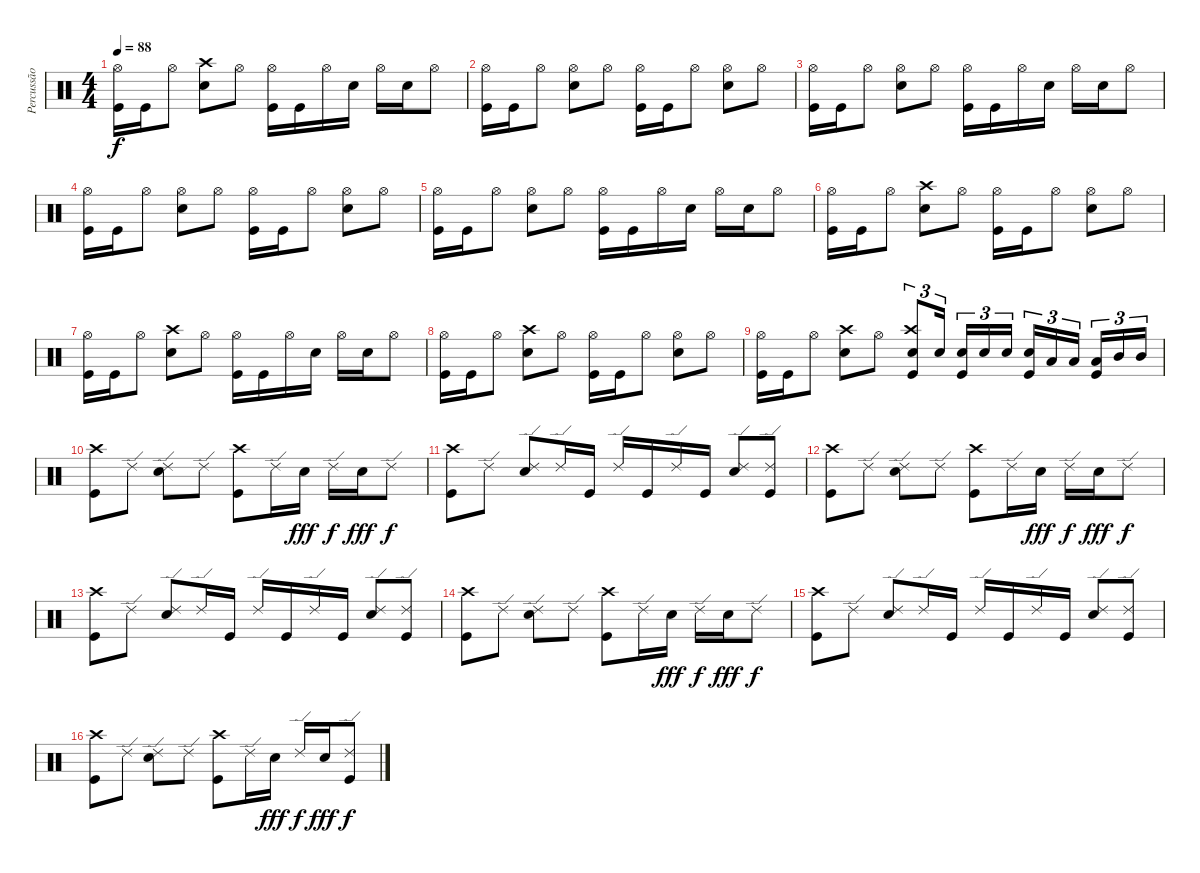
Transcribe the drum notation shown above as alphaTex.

\track ("Percussão" "Percussão") {instrument percussion}
\staff {score}
\articulation defaults
\ts (4 4)
\tempo 88
\clef neutral
\ks c
("Hi-Hat (open)" "Kick (hit)").16{dy f} "Kick (hit)".16 "Hi-Hat (open)".8 ("Crash high (hit)" "Electric Snare (hit)").8 "Hi-Hat (open)".8 ("Hi-Hat (open)" "Kick (hit)").16 "Kick (hit)".16 "Hi-Hat (open)".16 "Electric Snare (hit)".16 "Hi-Hat (open)".16 "Electric Snare (hit)".16 "Hi-Hat (open)".8 |
("Hi-Hat (open)" "Kick (hit)").16 "Kick (hit)".16 "Hi-Hat (open)".8 ("Hi-Hat (open)" "Electric Snare (hit)").8 "Hi-Hat (open)".8 ("Hi-Hat (open)" "Kick (hit)").16 "Kick (hit)".16 "Hi-Hat (open)".8 ("Hi-Hat (open)" "Electric Snare (hit)").8 "Hi-Hat (open)".8 |
("Hi-Hat (open)" "Kick (hit)").16 "Kick (hit)".16 "Hi-Hat (open)".8 ("Hi-Hat (open)" "Electric Snare (hit)").8 "Hi-Hat (open)".8 ("Hi-Hat (open)" "Kick (hit)").16 "Kick (hit)".16 "Hi-Hat (open)".16 "Electric Snare (hit)".16 "Hi-Hat (open)".16 "Electric Snare (hit)".16 "Hi-Hat (open)".8 |
("Hi-Hat (open)" "Kick (hit)").16 "Kick (hit)".16 "Hi-Hat (open)".8 ("Hi-Hat (open)" "Electric Snare (hit)").8 "Hi-Hat (open)".8 ("Hi-Hat (open)" "Kick (hit)").16 "Kick (hit)".16 "Hi-Hat (open)".8 ("Hi-Hat (open)" "Electric Snare (hit)").8 "Hi-Hat (open)".8 |
("Hi-Hat (open)" "Kick (hit)").16 "Kick (hit)".16 "Hi-Hat (open)".8 ("Hi-Hat (open)" "Electric Snare (hit)").8 "Hi-Hat (open)".8 ("Hi-Hat (open)" "Kick (hit)").16 "Kick (hit)".16 "Hi-Hat (open)".16 "Electric Snare (hit)".16 "Hi-Hat (open)".16 "Electric Snare (hit)".16 "Hi-Hat (open)".8 |
("Hi-Hat (open)" "Kick (hit)").16 "Kick (hit)".16 "Hi-Hat (open)".8 ("Crash high (hit)" "Electric Snare (hit)").8 "Hi-Hat (open)".8 ("Hi-Hat (open)" "Kick (hit)").16 "Kick (hit)".16 "Hi-Hat (open)".8 ("Hi-Hat (open)" "Electric Snare (hit)").8 "Hi-Hat (open)".8 |
("Hi-Hat (open)" "Kick (hit)").16 "Kick (hit)".16 "Hi-Hat (open)".8 ("Crash high (hit)" "Electric Snare (hit)").8 "Hi-Hat (open)".8 ("Hi-Hat (open)" "Kick (hit)").16 "Kick (hit)".16 "Hi-Hat (open)".16 "Electric Snare (hit)".16 "Hi-Hat (open)".16 "Electric Snare (hit)".16 "Hi-Hat (open)".8 |
("Hi-Hat (open)" "Kick (hit)").16 "Kick (hit)".16 "Hi-Hat (open)".8 ("Crash high (hit)" "Electric Snare (hit)").8 "Hi-Hat (open)".8 ("Hi-Hat (open)" "Kick (hit)").16 "Kick (hit)".16 "Hi-Hat (open)".8 ("Hi-Hat (open)" "Electric Snare (hit)").8 "Hi-Hat (open)".8 |
("Hi-Hat (open)" "Kick (hit)").16 "Kick (hit)".16 "Hi-Hat (open)".8 ("Crash high (hit)" "Electric Snare (hit)").8 "Hi-Hat (open)".8 ("Crash high (hit)" "Electric Snare (hit)" "Kick (hit)").8{tu (3 2)} "Electric Snare (hit)".16{tu (3 2)} ("Electric Snare (hit)" "Kick (hit)").16{tu (3 2)} "Electric Snare (hit)".16{tu (3 2)} "Electric Snare (hit)".16{tu (3 2)} ("Electric Snare (hit)" "Kick (hit)").16{tu (3 2)} "Low Tom (hit)".16{tu (3 2)} "Low Tom (hit)".16{tu (3 2)} ("Low Tom (hit)" "Kick (hit)").16{tu (3 2)} "Mid Tom (hit)".16{tu (3 2)} "Mid Tom (hit)".16{tu (3 2)} |
("Crash high (hit)" "Kick (hit)").8 "Ride (edge) 2".8 ("Ride (edge) 2" "Electric Snare (hit)").8 "Ride (edge) 2".8 ("Crash high (hit)" "Kick (hit)").8 "Ride (edge) 2".16 "Electric Snare (hit)".16{dy fff} "Ride (edge) 2".16{dy f} "Electric Snare (hit)".16{dy fff} "Ride (edge) 2".8{dy f} |
("Crash high (hit)" "Kick (hit)").8 "Ride (edge) 2".8 ("Ride (edge) 2" "Electric Snare (hit)").8 "Ride (edge) 2".16 "Kick (hit)".16 "Ride (edge) 2".16 "Kick (hit)".16 "Ride (edge) 2".16 "Kick (hit)".16 ("Ride (edge) 2" "Electric Snare (hit)").8 ("Ride (edge) 2" "Kick (hit)").8 |
("Crash high (hit)" "Kick (hit)").8 "Ride (edge) 2".8 ("Ride (edge) 2" "Electric Snare (hit)").8 "Ride (edge) 2".8 ("Crash high (hit)" "Kick (hit)").8 "Ride (edge) 2".16 "Electric Snare (hit)".16{dy fff} "Ride (edge) 2".16{dy f} "Electric Snare (hit)".16{dy fff} "Ride (edge) 2".8{dy f} |
("Crash high (hit)" "Kick (hit)").8 "Ride (edge) 2".8 ("Ride (edge) 2" "Electric Snare (hit)").8 "Ride (edge) 2".16 "Kick (hit)".16 "Ride (edge) 2".16 "Kick (hit)".16 "Ride (edge) 2".16 "Kick (hit)".16 ("Ride (edge) 2" "Electric Snare (hit)").8 ("Ride (edge) 2" "Kick (hit)").8 |
("Crash high (hit)" "Kick (hit)").8 "Ride (edge) 2".8 ("Ride (edge) 2" "Electric Snare (hit)").8 "Ride (edge) 2".8 ("Crash high (hit)" "Kick (hit)").8 "Ride (edge) 2".16 "Electric Snare (hit)".16{dy fff} "Ride (edge) 2".16{dy f} "Electric Snare (hit)".16{dy fff} "Ride (edge) 2".8{dy f} |
("Crash high (hit)" "Kick (hit)").8 "Ride (edge) 2".8 ("Ride (edge) 2" "Electric Snare (hit)").8 "Ride (edge) 2".16 "Kick (hit)".16 "Ride (edge) 2".16 "Kick (hit)".16 "Ride (edge) 2".16 "Kick (hit)".16 ("Ride (edge) 2" "Electric Snare (hit)").8 ("Ride (edge) 2" "Kick (hit)").8 |
("Crash high (hit)" "Kick (hit)").8 "Ride (edge) 2".8 ("Ride (edge) 2" "Electric Snare (hit)").8 "Ride (edge) 2".8 ("Crash high (hit)" "Kick (hit)").8 "Ride (edge) 2".16 "Electric Snare (hit)".16{dy fff} "Ride (edge) 2".16{dy f} "Electric Snare (hit)".16{dy fff} ("Ride (edge) 2" "Kick (hit)").8{dy f}
